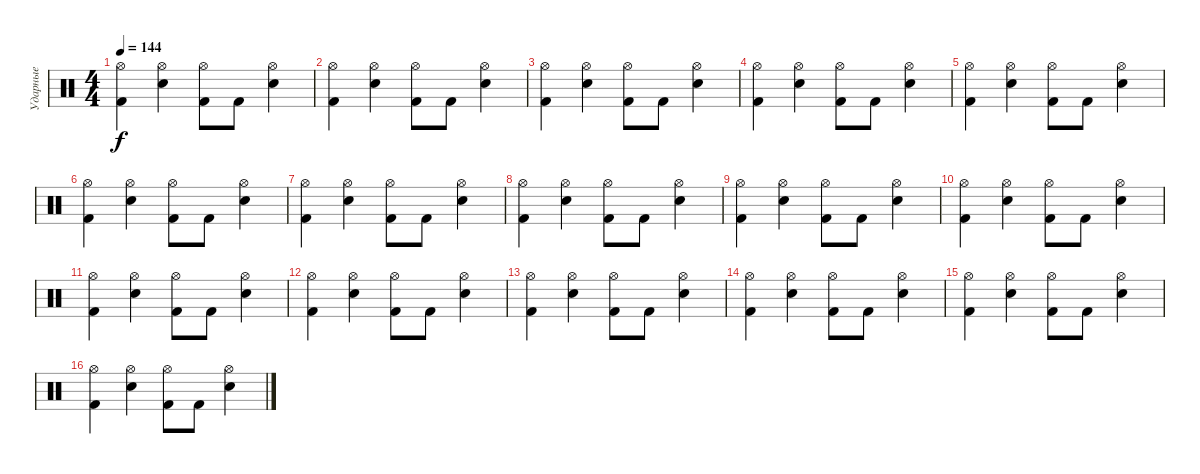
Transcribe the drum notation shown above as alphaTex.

\track ("Ударные" "Ударные") {instrument percussion}
\staff {score}
\articulation defaults
\ts (4 4)
\tempo 144
\clef neutral
\ks c
("Hi-Hat (open)" "Kick (hit) 2").4{dy f} ("Hi-Hat (open)" "Snare (hit) 2").4 ("Hi-Hat (open)" "Kick (hit) 2").8 "Kick (hit) 2".8 ("Hi-Hat (open)" "Snare (hit) 2").4 |
("Hi-Hat (open)" "Kick (hit) 2").4 ("Hi-Hat (open)" "Snare (hit) 2").4 ("Hi-Hat (open)" "Kick (hit) 2").8 "Kick (hit) 2".8 ("Hi-Hat (open)" "Snare (hit) 2").4 |
("Hi-Hat (open)" "Kick (hit) 2").4 ("Hi-Hat (open)" "Snare (hit) 2").4 ("Hi-Hat (open)" "Kick (hit) 2").8 "Kick (hit) 2".8 ("Hi-Hat (open)" "Snare (hit) 2").4 |
("Hi-Hat (open)" "Kick (hit) 2").4 ("Hi-Hat (open)" "Snare (hit) 2").4 ("Hi-Hat (open)" "Kick (hit) 2").8 "Kick (hit) 2".8 ("Hi-Hat (open)" "Snare (hit) 2").4 |
("Hi-Hat (open)" "Kick (hit) 2").4 ("Hi-Hat (open)" "Snare (hit) 2").4 ("Hi-Hat (open)" "Kick (hit) 2").8 "Kick (hit) 2".8 ("Hi-Hat (open)" "Snare (hit) 2").4 |
("Hi-Hat (open)" "Kick (hit) 2").4 ("Hi-Hat (open)" "Snare (hit) 2").4 ("Hi-Hat (open)" "Kick (hit) 2").8 "Kick (hit) 2".8 ("Hi-Hat (open)" "Snare (hit) 2").4 |
("Hi-Hat (open)" "Kick (hit) 2").4 ("Hi-Hat (open)" "Snare (hit) 2").4 ("Hi-Hat (open)" "Kick (hit) 2").8 "Kick (hit) 2".8 ("Hi-Hat (open)" "Snare (hit) 2").4 |
("Hi-Hat (open)" "Kick (hit) 2").4 ("Hi-Hat (open)" "Snare (hit) 2").4 ("Hi-Hat (open)" "Kick (hit) 2").8 "Kick (hit) 2".8 ("Hi-Hat (open)" "Snare (hit) 2").4 |
("Hi-Hat (open)" "Kick (hit) 2").4 ("Hi-Hat (open)" "Snare (hit) 2").4 ("Hi-Hat (open)" "Kick (hit) 2").8 "Kick (hit) 2".8 ("Hi-Hat (open)" "Snare (hit) 2").4 |
("Hi-Hat (open)" "Kick (hit) 2").4 ("Hi-Hat (open)" "Snare (hit) 2").4 ("Hi-Hat (open)" "Kick (hit) 2").8 "Kick (hit) 2".8 ("Hi-Hat (open)" "Snare (hit) 2").4 |
("Hi-Hat (open)" "Kick (hit) 2").4 ("Hi-Hat (open)" "Snare (hit) 2").4 ("Hi-Hat (open)" "Kick (hit) 2").8 "Kick (hit) 2".8 ("Hi-Hat (open)" "Snare (hit) 2").4 |
("Hi-Hat (open)" "Kick (hit) 2").4 ("Hi-Hat (open)" "Snare (hit) 2").4 ("Hi-Hat (open)" "Kick (hit) 2").8 "Kick (hit) 2".8 ("Hi-Hat (open)" "Snare (hit) 2").4 |
("Hi-Hat (open)" "Kick (hit) 2").4 ("Hi-Hat (open)" "Snare (hit) 2").4 ("Hi-Hat (open)" "Kick (hit) 2").8 "Kick (hit) 2".8 ("Hi-Hat (open)" "Snare (hit) 2").4 |
("Hi-Hat (open)" "Kick (hit) 2").4 ("Hi-Hat (open)" "Snare (hit) 2").4 ("Hi-Hat (open)" "Kick (hit) 2").8 "Kick (hit) 2".8 ("Hi-Hat (open)" "Snare (hit) 2").4 |
("Hi-Hat (open)" "Kick (hit) 2").4 ("Hi-Hat (open)" "Snare (hit) 2").4 ("Hi-Hat (open)" "Kick (hit) 2").8 "Kick (hit) 2".8 ("Hi-Hat (open)" "Snare (hit) 2").4 |
("Hi-Hat (open)" "Kick (hit) 2").4 ("Hi-Hat (open)" "Snare (hit) 2").4 ("Hi-Hat (open)" "Kick (hit) 2").8 "Kick (hit) 2".8 ("Hi-Hat (open)" "Snare (hit) 2").4
